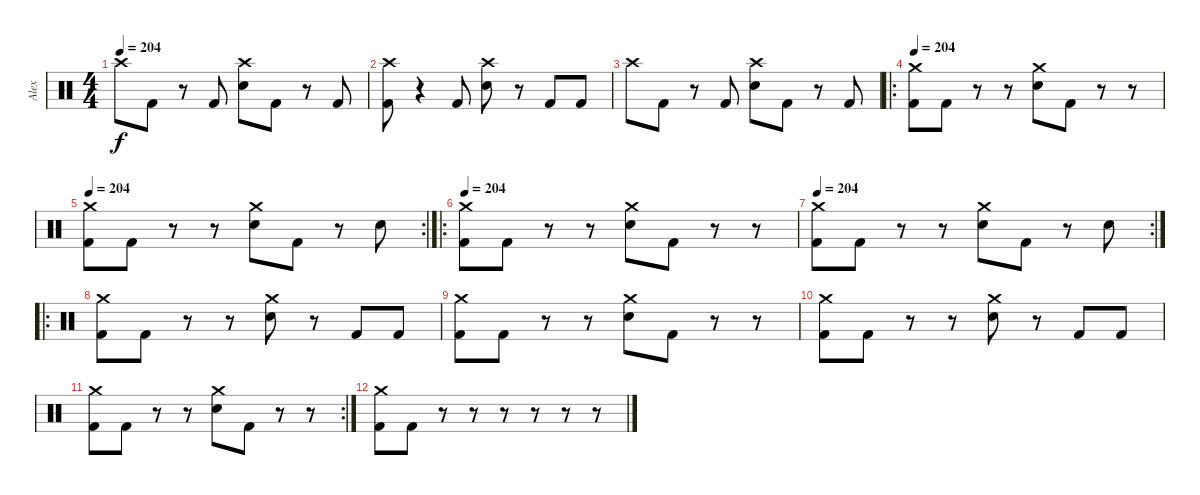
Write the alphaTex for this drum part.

\track ("Alex" "Alex") {instrument percussion}
\staff {score}
\articulation defaults
\ts (4 4)
\tempo 204
\clef neutral
\ks c "Crash high (hit)".8{dy f} "Kick (hit) 2".8
r.8 "Kick (hit) 2".8 ("Crash high (hit)" "Electric Snare (hit)").8 "Kick (hit) 2".8 r.8 "Kick (hit) 2".8 |
("Crash high (hit)" "Kick (hit) 2").8 r.4 "Kick (hit) 2".8 ("Crash high (hit)" "Electric Snare (hit)").8 r.8 "Kick (hit) 2".8 "Kick (hit) 2".8 |
"Crash high (hit)".8 "Kick (hit) 2".8 r.8 "Kick (hit) 2".8 ("Crash high (hit)" "Electric Snare (hit)").8 "Kick (hit) 2".8 r.8 "Kick (hit) 2".8 |
\ro
\tempo 204
("Crash medium (hit)" "Kick (hit) 2").8 "Kick (hit) 2".8 r.8 r.8 ("Crash medium (hit)" "Electric Snare (hit)").8 "Kick (hit) 2".8 r.8 r.8 |
\rc 2
\tempo 204
("Crash medium (hit)" "Kick (hit) 2").8 "Kick (hit) 2".8 r.8 r.8 ("Crash medium (hit)" "Electric Snare (hit)").8 "Kick (hit) 2".8 r.8 "Electric Snare (hit)".8 |
\ro
\tempo 204
("Crash medium (hit)" "Kick (hit) 2").8 "Kick (hit) 2".8 r.8 r.8 ("Crash medium (hit)" "Electric Snare (hit)").8 "Kick (hit) 2".8 r.8 r.8 |
\rc 2
\tempo 204
("Crash medium (hit)" "Kick (hit) 2").8 "Kick (hit) 2".8 r.8 r.8 ("Crash medium (hit)" "Electric Snare (hit)").8 "Kick (hit) 2".8 r.8 "Electric Snare (hit)".8 |
\ro
("Crash medium (hit)" "Kick (hit) 2").8 "Kick (hit) 2".8 r.8 r.8 ("Crash medium (hit)" "Electric Snare (hit)").8 r.8 "Kick (hit) 2".8 "Kick (hit) 2".8 |
("Crash medium (hit)" "Kick (hit) 2").8 "Kick (hit) 2".8 r.8 r.8 ("Crash medium (hit)" "Electric Snare (hit)").8 "Kick (hit) 2".8 r.8 r.8 |
("Crash medium (hit)" "Kick (hit) 2").8 "Kick (hit) 2".8 r.8 r.8 ("Crash medium (hit)" "Electric Snare (hit)").8 r.8 "Kick (hit) 2".8 "Kick (hit) 2".8 |
\rc 2
("Crash medium (hit)" "Kick (hit) 2").8 "Kick (hit) 2".8 r.8 r.8 ("Crash medium (hit)" "Electric Snare (hit)").8 "Kick (hit) 2".8 r.8 r.8 |
("Crash medium (hit)" "Kick (hit) 2").8 "Kick (hit) 2".8 r.8 r.8 r.8 r.8 r.8 r.8
